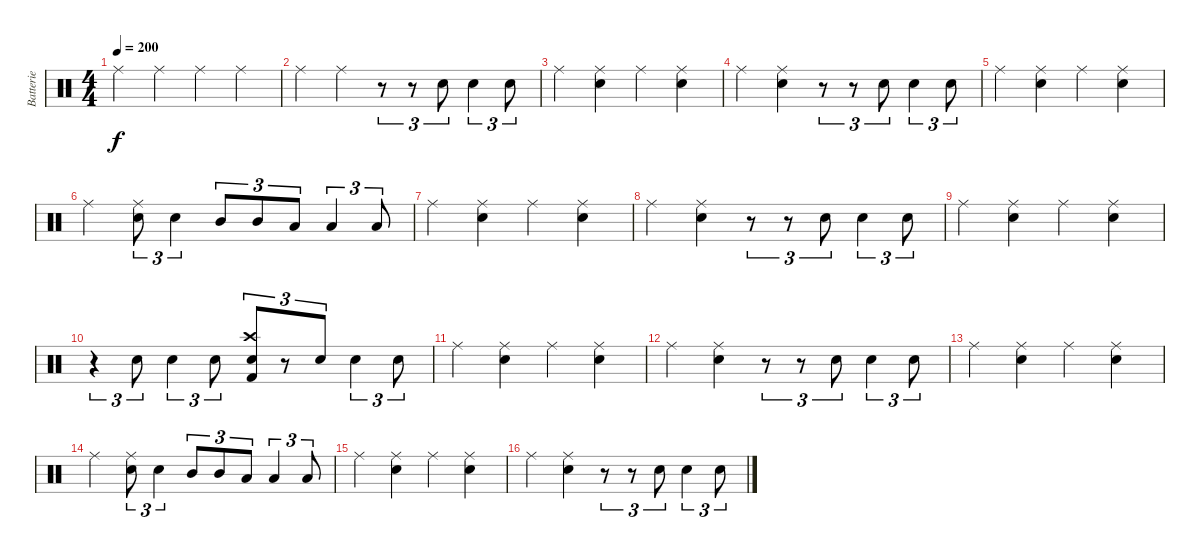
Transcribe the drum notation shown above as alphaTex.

\track ("Batterie" "Batterie") {instrument percussion}
\staff {score}
\articulation defaults
\ts (4 4)
\tempo 200
\clef neutral
\ks c "Ride (middle)".4{dy f} "Ride (middle)".4 "Ride (middle)".4 "Ride (middle)".4
|
"Ride (middle)".4 "Ride (middle)".4 r.8{tu (3 2)} r.8{tu (3 2)} "Electric Snare (hit)".8{tu (3 2)} "Electric Snare (hit)".4{tu (3 2)} "Electric Snare (hit)".8{tu (3 2)} |
"Ride (middle)".4 ("Ride (middle)" "Electric Snare (hit)").4 "Ride (middle)".4 ("Ride (middle)" "Electric Snare (hit)").4 |
"Ride (middle)".4 ("Ride (middle)" "Electric Snare (hit)").4 r.8{tu (3 2)} r.8{tu (3 2)} "Electric Snare (hit)".8{tu (3 2)} "Electric Snare (hit)".4{tu (3 2)} "Electric Snare (hit)".8{tu (3 2)} |
"Ride (middle)".4 ("Ride (middle)" "Electric Snare (hit)").4 "Ride (middle)".4 ("Ride (middle)" "Electric Snare (hit)").4 |
"Ride (middle)".4 ("Ride (middle)" "Electric Snare (hit)").8{tu (3 2)} "Electric Snare (hit)".4{tu (3 2)} "Mid Tom (hit)".8{tu (3 2)} "Mid Tom (hit)".8{tu (3 2)} "Low Floor Tom (hit)".8{tu (3 2)} "Low Floor Tom (hit)".4{tu (3 2)} "Low Floor Tom (hit)".8{tu (3 2)} |
"Ride (middle)".4 ("Ride (middle)" "Electric Snare (hit)").4 "Ride (middle)".4 ("Ride (middle)" "Electric Snare (hit)").4 |
"Ride (middle)".4 ("Ride (middle)" "Electric Snare (hit)").4 r.8{tu (3 2)} r.8{tu (3 2)} "Electric Snare (hit)".8{tu (3 2)} "Electric Snare (hit)".4{tu (3 2)} "Electric Snare (hit)".8{tu (3 2)} |
"Ride (middle)".4 ("Ride (middle)" "Electric Snare (hit)").4 "Ride (middle)".4 ("Ride (middle)" "Electric Snare (hit)").4 |
r.4{tu (3 2)} "Electric Snare (hit)".8{tu (3 2)} "Electric Snare (hit)".4{tu (3 2)} "Electric Snare (hit)".8{tu (3 2)} ("Crash high (hit)" "Electric Snare (hit)" "Kick (hit) 2").8{tu (3 2)} r.8{tu (3 2)} "Electric Snare (hit)".8{tu (3 2)} "Electric Snare (hit)".4{tu (3 2)} "Electric Snare (hit)".8{tu (3 2)} |
\section ("" "")
"Ride (middle)".4 ("Ride (middle)" "Electric Snare (hit)").4 "Ride (middle)".4 ("Ride (middle)" "Electric Snare (hit)").4 |
"Ride (middle)".4 ("Ride (middle)" "Electric Snare (hit)").4 r.8{tu (3 2)} r.8{tu (3 2)} "Electric Snare (hit)".8{tu (3 2)} "Electric Snare (hit)".4{tu (3 2)} "Electric Snare (hit)".8{tu (3 2)} |
"Ride (middle)".4 ("Ride (middle)" "Electric Snare (hit)").4 "Ride (middle)".4 ("Ride (middle)" "Electric Snare (hit)").4 |
"Ride (middle)".4 ("Ride (middle)" "Electric Snare (hit)").8{tu (3 2)} "Electric Snare (hit)".4{tu (3 2)} "Mid Tom (hit)".8{tu (3 2)} "Mid Tom (hit)".8{tu (3 2)} "Low Floor Tom (hit)".8{tu (3 2)} "Low Floor Tom (hit)".4{tu (3 2)} "Low Floor Tom (hit)".8{tu (3 2)} |
"Ride (middle)".4 ("Ride (middle)" "Electric Snare (hit)").4 "Ride (middle)".4 ("Ride (middle)" "Electric Snare (hit)").4 |
"Ride (middle)".4 ("Ride (middle)" "Electric Snare (hit)").4 r.8{tu (3 2)} r.8{tu (3 2)} "Electric Snare (hit)".8{tu (3 2)} "Electric Snare (hit)".4{tu (3 2)} "Electric Snare (hit)".8{tu (3 2)}
